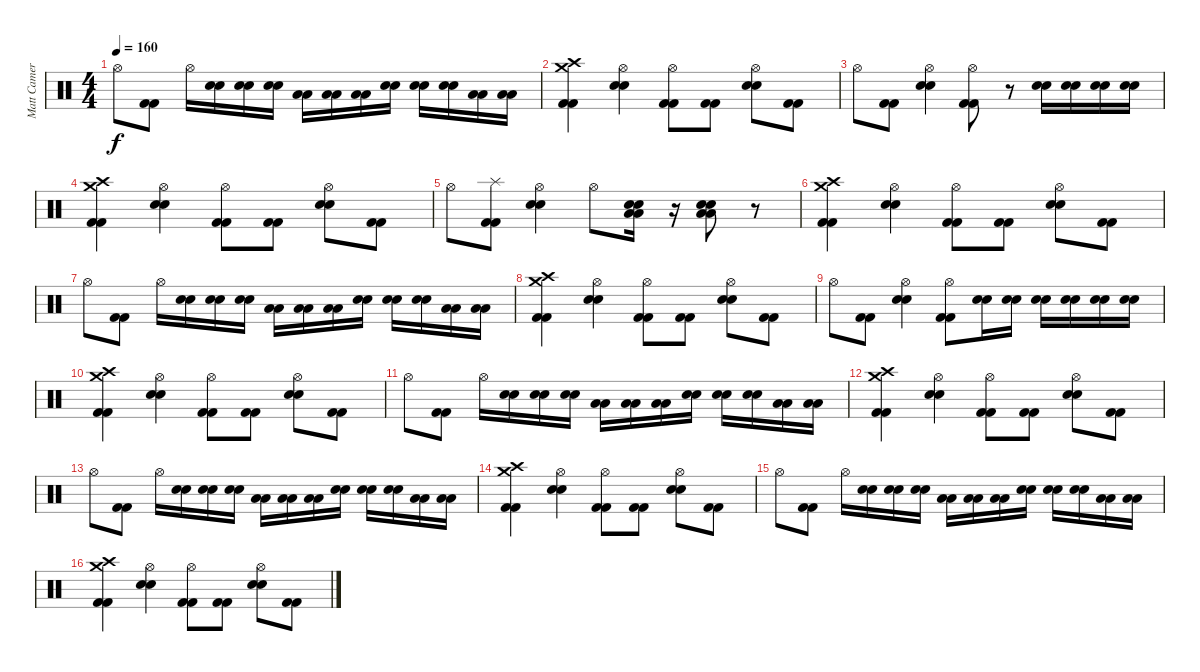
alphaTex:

\track ("Matt Cameron" "Matt Camer") {instrument percussion}
\staff {score}
\articulation defaults
\ts (4 4)
\tempo 160
\clef neutral
\ks c "Hi-Hat (open)".8{dy f}
("Kick (hit) 2" "Kick (hit) 2").8 "Hi-Hat (open)".16 ("Electric Snare (hit)" "Electric Snare (hit)").16 ("Electric Snare (hit)" "Electric Snare (hit)").16 ("Electric Snare (hit)" "Electric Snare (hit)").16 ("Low Tom (hit)" "Low Tom (hit)").16 ("Low Tom (hit)" "Low Tom (hit)").16 ("Low Tom (hit)" "Low Tom (hit)").16 ("Electric Snare (hit)" "Electric Snare (hit)").16 ("Electric Snare (hit)" "Electric Snare (hit)").16 ("Electric Snare (hit)" "Electric Snare (hit)").16 ("Low Tom (hit)" "Low Tom (hit)").16 ("Low Tom (hit)" "Low Tom (hit)").16 |
("Crash medium (hit)" "Kick (hit) 2" "Kick (hit) 2" "Crash high (hit)").4 ("Electric Snare (hit)" "Electric Snare (hit)" "Hi-Hat (open)").4 ("Kick (hit) 2" "Kick (hit) 2" "Hi-Hat (open)").8 ("Kick (hit) 2" "Kick (hit) 2").8 ("Electric Snare (hit)" "Electric Snare (hit)" "Hi-Hat (open)").8 ("Kick (hit) 2" "Kick (hit) 2").8 |
"Hi-Hat (open)".8 ("Kick (hit) 2" "Kick (hit) 2").8 ("Electric Snare (hit)" "Electric Snare (hit)" "Hi-Hat (open)").4 ("Kick (hit) 2" "Kick (hit) 2" "Hi-Hat (open)").8 r.8 ("Electric Snare (hit)" "Electric Snare (hit)").16 ("Electric Snare (hit)" "Electric Snare (hit)").16 ("Electric Snare (hit)" "Electric Snare (hit)").16 ("Electric Snare (hit)" "Electric Snare (hit)").16 |
("Crash medium (hit)" "Kick (hit) 2" "Kick (hit) 2" "Crash high (hit)").4 ("Electric Snare (hit)" "Electric Snare (hit)" "Hi-Hat (open)").4 ("Kick (hit) 2" "Kick (hit) 2" "Hi-Hat (open)").8 ("Kick (hit) 2" "Kick (hit) 2").8 ("Electric Snare (hit)" "Electric Snare (hit)" "Hi-Hat (open)").8 ("Kick (hit) 2" "Kick (hit) 2").8 |
"Hi-Hat (open)".8 ("Kick (hit) 2" "Kick (hit) 2" "Splash (hit)").8 ("Electric Snare (hit)" "Electric Snare (hit)" "Hi-Hat (open)").4 "Hi-Hat (open)".8 ("Low Tom (hit)" "Low Tom (hit)" "Electric Snare (hit)" "Electric Snare (hit)").16 r.16 ("Low Tom (hit)" "Low Tom (hit)" "Electric Snare (hit)" "Electric Snare (hit)").8 r.8 |
("Crash medium (hit)" "Kick (hit) 2" "Kick (hit) 2" "Crash high (hit)").4 ("Electric Snare (hit)" "Electric Snare (hit)" "Hi-Hat (open)").4 ("Kick (hit) 2" "Kick (hit) 2" "Hi-Hat (open)").8 ("Kick (hit) 2" "Kick (hit) 2").8 ("Electric Snare (hit)" "Electric Snare (hit)" "Hi-Hat (open)").8 ("Kick (hit) 2" "Kick (hit) 2").8 |
"Hi-Hat (open)".8 ("Kick (hit) 2" "Kick (hit) 2").8 "Hi-Hat (open)".16 ("Electric Snare (hit)" "Electric Snare (hit)").16 ("Electric Snare (hit)" "Electric Snare (hit)").16 ("Electric Snare (hit)" "Electric Snare (hit)").16 ("Low Tom (hit)" "Low Tom (hit)").16 ("Low Tom (hit)" "Low Tom (hit)").16 ("Low Tom (hit)" "Low Tom (hit)").16 ("Electric Snare (hit)" "Electric Snare (hit)").16 ("Electric Snare (hit)" "Electric Snare (hit)").16 ("Electric Snare (hit)" "Electric Snare (hit)").16 ("Low Tom (hit)" "Low Tom (hit)").16 ("Low Tom (hit)" "Low Tom (hit)").16 |
("Crash medium (hit)" "Kick (hit) 2" "Kick (hit) 2" "Crash high (hit)").4 ("Electric Snare (hit)" "Electric Snare (hit)" "Hi-Hat (open)").4 ("Kick (hit) 2" "Kick (hit) 2" "Hi-Hat (open)").8 ("Kick (hit) 2" "Kick (hit) 2").8 ("Electric Snare (hit)" "Electric Snare (hit)" "Hi-Hat (open)").8 ("Kick (hit) 2" "Kick (hit) 2").8 |
"Hi-Hat (open)".8 ("Kick (hit) 2" "Kick (hit) 2").8 ("Electric Snare (hit)" "Electric Snare (hit)" "Hi-Hat (open)").4 ("Kick (hit) 2" "Kick (hit) 2" "Hi-Hat (open)").8 ("Electric Snare (hit)" "Electric Snare (hit)").16 ("Electric Snare (hit)" "Electric Snare (hit)").16 ("Electric Snare (hit)" "Electric Snare (hit)").16 ("Electric Snare (hit)" "Electric Snare (hit)").16 ("Electric Snare (hit)" "Electric Snare (hit)").16 ("Electric Snare (hit)" "Electric Snare (hit)").16 |
("Crash medium (hit)" "Kick (hit) 2" "Kick (hit) 2" "Crash high (hit)").4 ("Electric Snare (hit)" "Electric Snare (hit)" "Hi-Hat (open)").4 ("Kick (hit) 2" "Kick (hit) 2" "Hi-Hat (open)").8 ("Kick (hit) 2" "Kick (hit) 2").8 ("Electric Snare (hit)" "Electric Snare (hit)" "Hi-Hat (open)").8 ("Kick (hit) 2" "Kick (hit) 2").8 |
"Hi-Hat (open)".8 ("Kick (hit) 2" "Kick (hit) 2").8 "Hi-Hat (open)".16 ("Electric Snare (hit)" "Electric Snare (hit)").16 ("Electric Snare (hit)" "Electric Snare (hit)").16 ("Electric Snare (hit)" "Electric Snare (hit)").16 ("Low Tom (hit)" "Low Tom (hit)").16 ("Low Tom (hit)" "Low Tom (hit)").16 ("Low Tom (hit)" "Low Tom (hit)").16 ("Electric Snare (hit)" "Electric Snare (hit)").16 ("Electric Snare (hit)" "Electric Snare (hit)").16 ("Electric Snare (hit)" "Electric Snare (hit)").16 ("Low Tom (hit)" "Low Tom (hit)").16 ("Low Tom (hit)" "Low Tom (hit)").16 |
("Crash medium (hit)" "Kick (hit) 2" "Kick (hit) 2" "Crash high (hit)").4 ("Electric Snare (hit)" "Electric Snare (hit)" "Hi-Hat (open)").4 ("Kick (hit) 2" "Kick (hit) 2" "Hi-Hat (open)").8 ("Kick (hit) 2" "Kick (hit) 2").8 ("Electric Snare (hit)" "Electric Snare (hit)" "Hi-Hat (open)").8 ("Kick (hit) 2" "Kick (hit) 2").8 |
"Hi-Hat (open)".8 ("Kick (hit) 2" "Kick (hit) 2").8 "Hi-Hat (open)".16 ("Electric Snare (hit)" "Electric Snare (hit)").16 ("Electric Snare (hit)" "Electric Snare (hit)").16 ("Electric Snare (hit)" "Electric Snare (hit)").16 ("Low Tom (hit)" "Low Tom (hit)").16 ("Low Tom (hit)" "Low Tom (hit)").16 ("Low Tom (hit)" "Low Tom (hit)").16 ("Electric Snare (hit)" "Electric Snare (hit)").16 ("Electric Snare (hit)" "Electric Snare (hit)").16 ("Electric Snare (hit)" "Electric Snare (hit)").16 ("Low Tom (hit)" "Low Tom (hit)").16 ("Low Tom (hit)" "Low Tom (hit)").16 |
("Crash medium (hit)" "Kick (hit) 2" "Kick (hit) 2" "Crash high (hit)").4 ("Electric Snare (hit)" "Electric Snare (hit)" "Hi-Hat (open)").4 ("Kick (hit) 2" "Kick (hit) 2" "Hi-Hat (open)").8 ("Kick (hit) 2" "Kick (hit) 2").8 ("Electric Snare (hit)" "Electric Snare (hit)" "Hi-Hat (open)").8 ("Kick (hit) 2" "Kick (hit) 2").8 |
"Hi-Hat (open)".8 ("Kick (hit) 2" "Kick (hit) 2").8 "Hi-Hat (open)".16 ("Electric Snare (hit)" "Electric Snare (hit)").16 ("Electric Snare (hit)" "Electric Snare (hit)").16 ("Electric Snare (hit)" "Electric Snare (hit)").16 ("Low Tom (hit)" "Low Tom (hit)").16 ("Low Tom (hit)" "Low Tom (hit)").16 ("Low Tom (hit)" "Low Tom (hit)").16 ("Electric Snare (hit)" "Electric Snare (hit)").16 ("Electric Snare (hit)" "Electric Snare (hit)").16 ("Electric Snare (hit)" "Electric Snare (hit)").16 ("Low Tom (hit)" "Low Tom (hit)").16 ("Low Tom (hit)" "Low Tom (hit)").16 |
("Crash medium (hit)" "Kick (hit) 2" "Kick (hit) 2" "Crash high (hit)").4 ("Electric Snare (hit)" "Electric Snare (hit)" "Hi-Hat (open)").4 ("Kick (hit) 2" "Kick (hit) 2" "Hi-Hat (open)").8 ("Kick (hit) 2" "Kick (hit) 2").8 ("Electric Snare (hit)" "Electric Snare (hit)" "Hi-Hat (open)").8 ("Kick (hit) 2" "Kick (hit) 2").8
